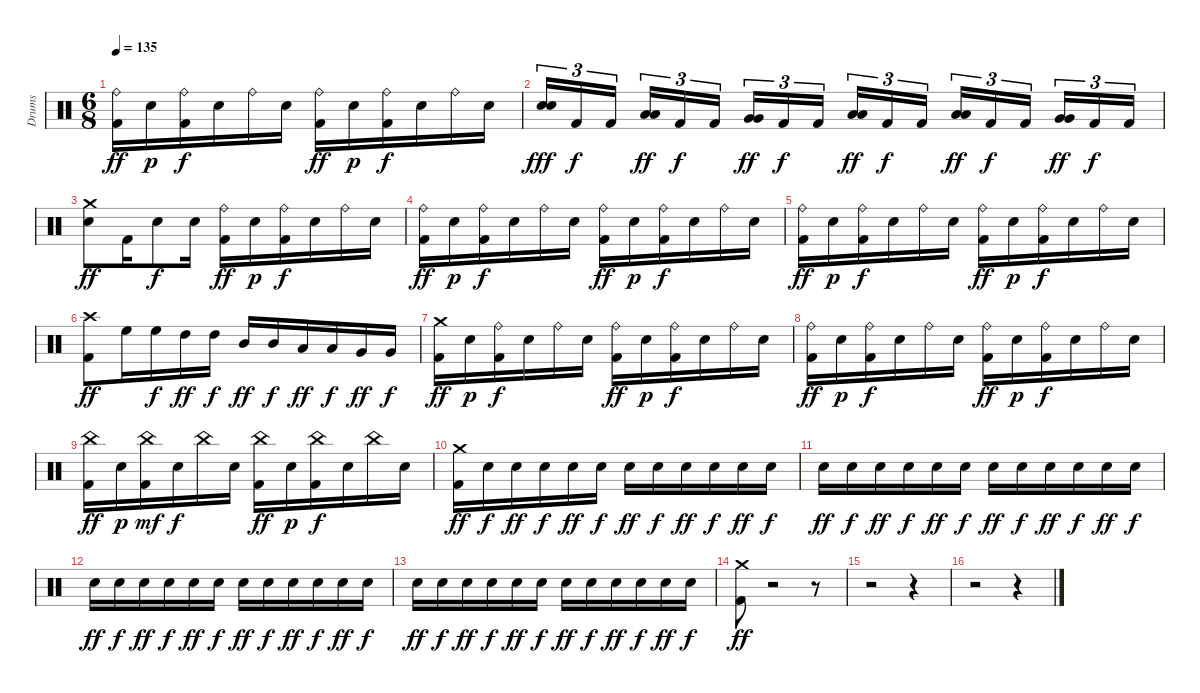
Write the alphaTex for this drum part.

\track ("Drums" "Drums") {instrument percussion}
\staff {score}
\articulation defaults
\ts (6 8)
\tempo 135
\clef neutral
\ks c
("Kick (hit) 2" "Ride (bell)").16{dy ff} "Electric Snare (hit)".16{dy p} ("Kick (hit) 2" "Ride (bell)").16{dy f} "Electric Snare (hit)".16 "Ride (bell)".16 "Electric Snare (hit)".16 ("Kick (hit) 2" "Ride (bell)").16{dy ff} "Electric Snare (hit)".16{dy p} ("Kick (hit) 2" "Ride (bell)").16{dy f} "Electric Snare (hit)".16 "Ride (bell)".16 "Electric Snare (hit)".16 |
("Electric Snare (hit)" "Electric Snare (hit)").16{tu (3 2) dy fff} "Kick (hit) 2".16{tu (3 2) dy f} "Kick (hit) 2".16{tu (3 2)} ("Low Tom (hit)" "Low Tom (hit)").16{tu (3 2) dy ff} "Kick (hit) 2".16{tu (3 2) dy f} "Kick (hit) 2".16{tu (3 2)} ("Very Low Tom (hit)" "Very Low Tom (hit)").16{tu (3 2) dy ff} "Kick (hit) 2".16{tu (3 2) dy f} "Kick (hit) 2".16{tu (3 2)} ("Low Floor Tom (hit)" "Low Floor Tom (hit)").16{tu (3 2) dy ff} "Kick (hit) 2".16{tu (3 2) dy f} "Kick (hit) 2".16{tu (3 2)} ("Low Tom (hit)" "Low Tom (hit)").16{tu (3 2) dy ff} "Kick (hit) 2".16{tu (3 2) dy f} "Kick (hit) 2".16{tu (3 2)} ("Very Low Tom (hit)" "Very Low Tom (hit)").16{tu (3 2) dy ff} "Kick (hit) 2".16{tu (3 2) dy f} "Kick (hit) 2".16{tu (3 2)} |
("Electric Snare (hit)" "Crash medium (hit)").8{dy ff} "Kick (hit) 2".16 "Electric Snare (hit)".8{dy f} "Electric Snare (hit)".16 ("Kick (hit) 2" "Ride (bell)").16{dy ff} "Electric Snare (hit)".16{dy p} ("Kick (hit) 2" "Ride (bell)").16{dy f} "Electric Snare (hit)".16 "Ride (bell)".16 "Electric Snare (hit)".16 |
("Kick (hit) 2" "Ride (bell)").16{dy ff} "Electric Snare (hit)".16{dy p} ("Kick (hit) 2" "Ride (bell)").16{dy f} "Electric Snare (hit)".16 "Ride (bell)".16 "Electric Snare (hit)".16 ("Kick (hit) 2" "Ride (bell)").16{dy ff} "Electric Snare (hit)".16{dy p} ("Kick (hit) 2" "Ride (bell)").16{dy f} "Electric Snare (hit)".16 "Ride (bell)".16 "Electric Snare (hit)".16 |
("Kick (hit) 2" "Ride (bell)").16{dy ff} "Electric Snare (hit)".16{dy p} ("Kick (hit) 2" "Ride (bell)").16{dy f} "Electric Snare (hit)".16 "Ride (bell)".16 "Electric Snare (hit)".16 ("Kick (hit) 2" "Ride (bell)").16{dy ff} "Electric Snare (hit)".16{dy p} ("Kick (hit) 2" "Ride (bell)").16{dy f} "Electric Snare (hit)".16 "Ride (bell)".16 "Electric Snare (hit)".16 |
("Kick (hit) 2" "Crash high (hit)").8{dy ff} "High Floor Tom (hit)".16 "High Floor Tom (hit)".16{dy f} "High Tom (hit)".16{dy ff} "High Tom (hit)".16{dy f} "Mid Tom (hit)".16{dy ff} "Mid Tom (hit)".16{dy f} "Low Tom (hit)".16{dy ff} "Low Tom (hit)".16{dy f} "Very Low Tom (hit)".16{dy ff} "Very Low Tom (hit)".16{dy f} |
("Kick (hit) 2" "Crash medium (hit)").16{dy ff} "Electric Snare (hit)".16{dy p} ("Kick (hit) 2" "Ride (bell)").16{dy f} "Electric Snare (hit)".16 "Ride (bell)".16 "Electric Snare (hit)".16 ("Kick (hit) 2" "Ride (bell)").16{dy ff} "Electric Snare (hit)".16{dy p} ("Kick (hit) 2" "Ride (bell)").16{dy f} "Electric Snare (hit)".16 "Ride (bell)".16 "Electric Snare (hit)".16 |
("Kick (hit) 2" "Ride (bell)").16{dy ff} "Electric Snare (hit)".16{dy p} ("Kick (hit) 2" "Ride (bell)").16{dy f} "Electric Snare (hit)".16 "Ride (bell)".16 "Electric Snare (hit)".16 ("Kick (hit) 2" "Ride (bell)").16{dy ff} "Electric Snare (hit)".16{dy p} ("Kick (hit) 2" "Ride (bell)").16{dy f} "Electric Snare (hit)".16 "Ride (bell)".16 "Electric Snare (hit)".16 |
("Kick (hit) 2" "China (hit)").16{dy ff} "Electric Snare (hit)".16{dy p} ("Kick (hit) 2" "China (hit)").16{dy mf} "Electric Snare (hit)".16{dy f} "China (hit)".16 "Electric Snare (hit)".16 ("Kick (hit) 2" "China (hit)").16{dy ff} "Electric Snare (hit)".16{dy p} ("Kick (hit) 2" "China (hit)").16{dy f} "Electric Snare (hit)".16 "China (hit)".16 "Electric Snare (hit)".16 |
("Kick (hit) 2" "Crash medium (hit)").16{dy ff} "Electric Snare (hit)".16{dy f} "Electric Snare (hit)".16{dy ff} "Electric Snare (hit)".16{dy f} "Electric Snare (hit)".16{dy ff} "Electric Snare (hit)".16{dy f} "Electric Snare (hit)".16{dy ff} "Electric Snare (hit)".16{dy f} "Electric Snare (hit)".16{dy ff} "Electric Snare (hit)".16{dy f} "Electric Snare (hit)".16{dy ff} "Electric Snare (hit)".16{dy f} |
"Electric Snare (hit)".16{dy ff} "Electric Snare (hit)".16{dy f} "Electric Snare (hit)".16{dy ff} "Electric Snare (hit)".16{dy f} "Electric Snare (hit)".16{dy ff} "Electric Snare (hit)".16{dy f} "Electric Snare (hit)".16{dy ff} "Electric Snare (hit)".16{dy f} "Electric Snare (hit)".16{dy ff} "Electric Snare (hit)".16{dy f} "Electric Snare (hit)".16{dy ff} "Electric Snare (hit)".16{dy f} |
"Electric Snare (hit)".16{dy ff} "Electric Snare (hit)".16{dy f} "Electric Snare (hit)".16{dy ff} "Electric Snare (hit)".16{dy f} "Electric Snare (hit)".16{dy ff} "Electric Snare (hit)".16{dy f} "Electric Snare (hit)".16{dy ff} "Electric Snare (hit)".16{dy f} "Electric Snare (hit)".16{dy ff} "Electric Snare (hit)".16{dy f} "Electric Snare (hit)".16{dy ff} "Electric Snare (hit)".16{dy f} |
"Electric Snare (hit)".16{dy ff} "Electric Snare (hit)".16{dy f} "Electric Snare (hit)".16{dy ff} "Electric Snare (hit)".16{dy f} "Electric Snare (hit)".16{dy ff} "Electric Snare (hit)".16{dy f} "Electric Snare (hit)".16{dy ff} "Electric Snare (hit)".16{dy f} "Electric Snare (hit)".16{dy ff} "Electric Snare (hit)".16{dy f} "Electric Snare (hit)".16{dy ff} "Electric Snare (hit)".16{dy f} |
("Kick (hit) 2" "Crash medium (hit)").8{dy ff} r.2 r.8 |
r.2 r.4 |
r.2 r.4
